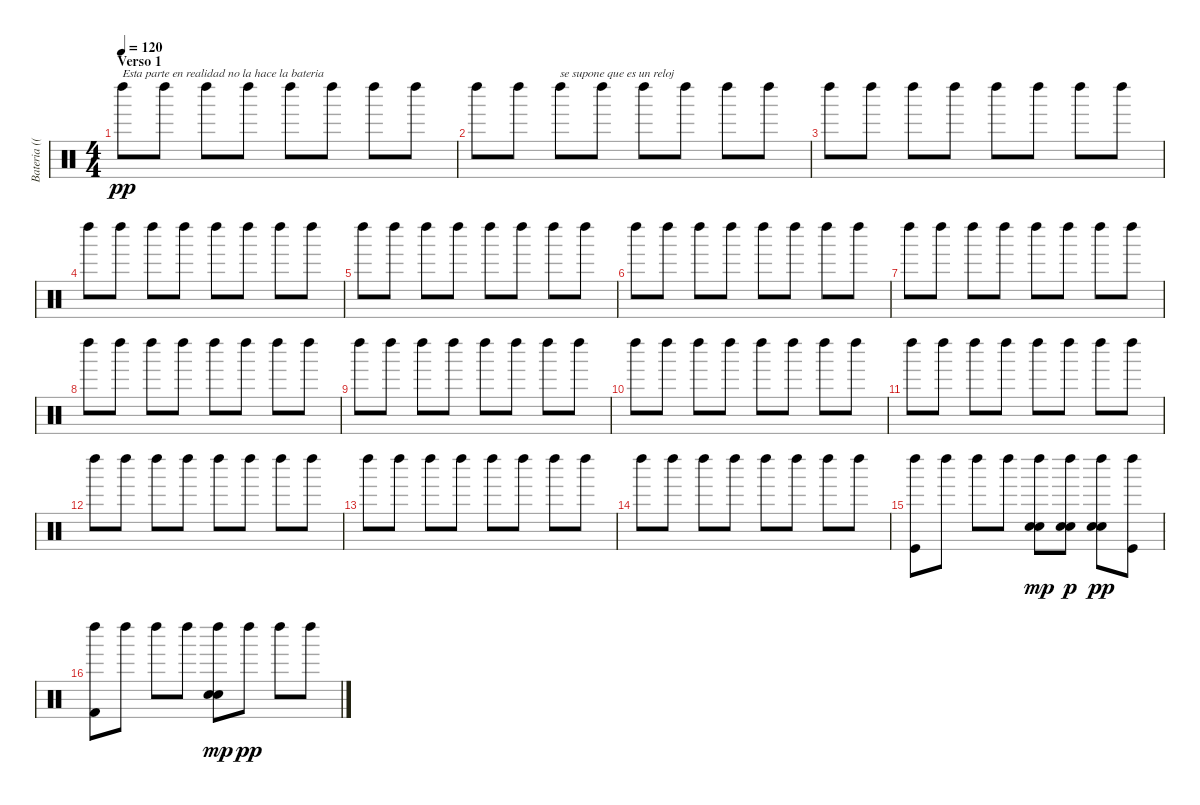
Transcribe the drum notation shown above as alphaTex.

\track ("Bateria ((Matt))" "Bateria ((") {instrument percussion}
\staff {score}
\articulation defaults
\ts (4 4)
\section ("" "Verso 1")
\tempo 120
\clef neutral
\ks c "Left Maraca (hit)".8{txt "Esta parte en realidad no la hace la bateria" dy pp} "Left Maraca (hit)".8 "Left Maraca (hit)".8 "Left Maraca (hit)".8 "Left Maraca (hit)".8 "Left Maraca (hit)".8 "Left Maraca (hit)".8 "Left Maraca (hit)".8
|
"Left Maraca (hit)".8 "Left Maraca (hit)".8 "Left Maraca (hit)".8{txt "se supone que es un reloj"} "Left Maraca (hit)".8 "Left Maraca (hit)".8 "Left Maraca (hit)".8 "Left Maraca (hit)".8 "Left Maraca (hit)".8 |
"Left Maraca (hit)".8 "Left Maraca (hit)".8 "Left Maraca (hit)".8 "Left Maraca (hit)".8 "Left Maraca (hit)".8 "Left Maraca (hit)".8 "Left Maraca (hit)".8 "Left Maraca (hit)".8 |
"Left Maraca (hit)".8 "Left Maraca (hit)".8 "Left Maraca (hit)".8 "Left Maraca (hit)".8 "Left Maraca (hit)".8 "Left Maraca (hit)".8 "Left Maraca (hit)".8 "Left Maraca (hit)".8 |
"Left Maraca (hit)".8 "Left Maraca (hit)".8 "Left Maraca (hit)".8 "Left Maraca (hit)".8 "Left Maraca (hit)".8 "Left Maraca (hit)".8 "Left Maraca (hit)".8 "Left Maraca (hit)".8 |
"Left Maraca (hit)".8 "Left Maraca (hit)".8 "Left Maraca (hit)".8 "Left Maraca (hit)".8 "Left Maraca (hit)".8 "Left Maraca (hit)".8 "Left Maraca (hit)".8 "Left Maraca (hit)".8 |
"Left Maraca (hit)".8 "Left Maraca (hit)".8 "Left Maraca (hit)".8 "Left Maraca (hit)".8 "Left Maraca (hit)".8 "Left Maraca (hit)".8 "Left Maraca (hit)".8 "Left Maraca (hit)".8 |
"Left Maraca (hit)".8 "Left Maraca (hit)".8 "Left Maraca (hit)".8 "Left Maraca (hit)".8 "Left Maraca (hit)".8 "Left Maraca (hit)".8 "Left Maraca (hit)".8 "Left Maraca (hit)".8 |
"Left Maraca (hit)".8 "Left Maraca (hit)".8 "Left Maraca (hit)".8 "Left Maraca (hit)".8 "Left Maraca (hit)".8 "Left Maraca (hit)".8 "Left Maraca (hit)".8 "Left Maraca (hit)".8 |
"Left Maraca (hit)".8 "Left Maraca (hit)".8 "Left Maraca (hit)".8 "Left Maraca (hit)".8 "Left Maraca (hit)".8 "Left Maraca (hit)".8 "Left Maraca (hit)".8 "Left Maraca (hit)".8 |
"Left Maraca (hit)".8 "Left Maraca (hit)".8 "Left Maraca (hit)".8 "Left Maraca (hit)".8 "Left Maraca (hit)".8 "Left Maraca (hit)".8 "Left Maraca (hit)".8 "Left Maraca (hit)".8 |
"Left Maraca (hit)".8 "Left Maraca (hit)".8 "Left Maraca (hit)".8 "Left Maraca (hit)".8 "Left Maraca (hit)".8 "Left Maraca (hit)".8 "Left Maraca (hit)".8 "Left Maraca (hit)".8 |
"Left Maraca (hit)".8 "Left Maraca (hit)".8 "Left Maraca (hit)".8 "Left Maraca (hit)".8 "Left Maraca (hit)".8 "Left Maraca (hit)".8 "Left Maraca (hit)".8 "Left Maraca (hit)".8 |
"Left Maraca (hit)".8 "Left Maraca (hit)".8 "Left Maraca (hit)".8 "Left Maraca (hit)".8 "Left Maraca (hit)".8 "Left Maraca (hit)".8 "Left Maraca (hit)".8 "Left Maraca (hit)".8 |
("Left Maraca (hit)" "Kick (hit)").8 "Left Maraca (hit)".8 "Left Maraca (hit)".8 "Left Maraca (hit)".8 ("Left Maraca (hit)" "Hand Clap (hit)" "Electric Snare (hit)").8{dy mp} ("Left Maraca (hit)" "Hand Clap (hit)" "Electric Snare (hit)").8{dy p} ("Left Maraca (hit)" "Hand Clap (hit)" "Electric Snare (hit)").8{dy pp} ("Left Maraca (hit)" "Kick (hit)").8 |
("Left Maraca (hit)" "Kick (hit) 2").8 "Left Maraca (hit)".8 "Left Maraca (hit)".8 "Left Maraca (hit)".8 ("Left Maraca (hit)" "Hand Clap (hit)" "Electric Snare (hit)").8{dy mp} "Left Maraca (hit)".8{dy pp} "Left Maraca (hit)".8 "Left Maraca (hit)".8
